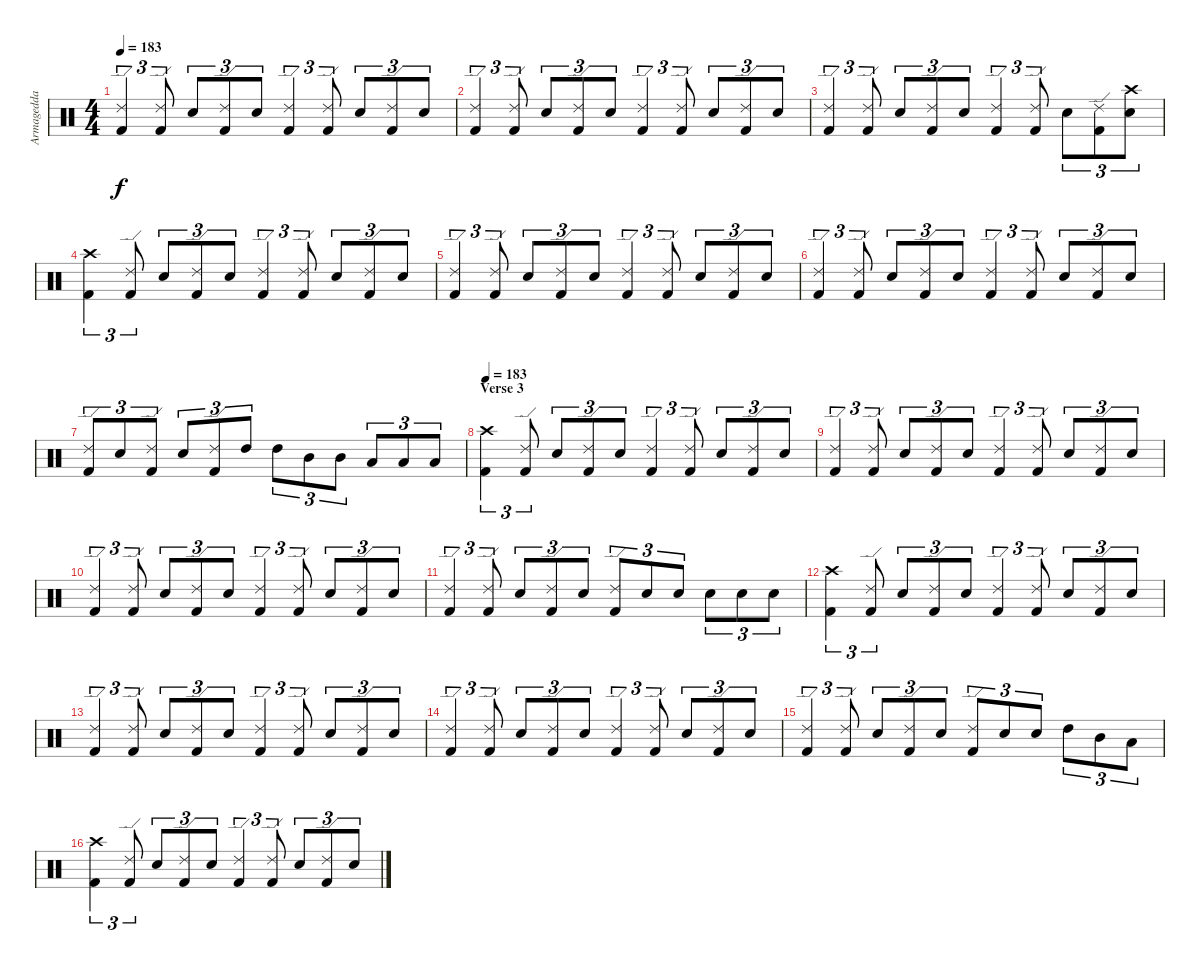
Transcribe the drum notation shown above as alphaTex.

\track ("Armagedda" "Armagedda") {instrument percussion}
\staff {score}
\articulation defaults
\ts (4 4)
\tempo 183
\clef neutral
\ks c
("Ride (edge) 2" "Kick (hit) 2").4{tu (3 2) dy f} ("Ride (edge) 2" "Kick (hit) 2").8{tu (3 2)} "Electric Snare (hit)".8{tu (3 2)} ("Ride (edge) 2" "Kick (hit) 2").8{tu (3 2)} "Electric Snare (hit)".8{tu (3 2)} ("Ride (edge) 2" "Kick (hit) 2").4{tu (3 2)} ("Ride (edge) 2" "Kick (hit) 2").8{tu (3 2)} "Electric Snare (hit)".8{tu (3 2)} ("Ride (edge) 2" "Kick (hit) 2").8{tu (3 2)} "Electric Snare (hit)".8{tu (3 2)} |
("Ride (edge) 2" "Kick (hit) 2").4{tu (3 2)} ("Ride (edge) 2" "Kick (hit) 2").8{tu (3 2)} "Electric Snare (hit)".8{tu (3 2)} ("Ride (edge) 2" "Kick (hit) 2").8{tu (3 2)} "Electric Snare (hit)".8{tu (3 2)} ("Ride (edge) 2" "Kick (hit) 2").4{tu (3 2)} ("Ride (edge) 2" "Kick (hit) 2").8{tu (3 2)} "Electric Snare (hit)".8{tu (3 2)} ("Ride (edge) 2" "Kick (hit) 2").8{tu (3 2)} "Electric Snare (hit)".8{tu (3 2)} |
("Ride (edge) 2" "Kick (hit) 2").4{tu (3 2)} ("Ride (edge) 2" "Kick (hit) 2").8{tu (3 2)} "Electric Snare (hit)".8{tu (3 2)} ("Ride (edge) 2" "Kick (hit) 2").8{tu (3 2)} "Electric Snare (hit)".8{tu (3 2)} ("Ride (edge) 2" "Kick (hit) 2").4{tu (3 2)} ("Ride (edge) 2" "Kick (hit) 2").8{tu (3 2)} "Electric Snare (hit)".8{tu (3 2)} ("Ride (edge) 2" "Kick (hit) 2").8{tu (3 2)} ("Crash high (hit)" "Electric Snare (hit)").8{tu (3 2)} |
("Crash high (hit)" "Kick (hit) 2").4{tu (3 2)} ("Ride (edge) 2" "Kick (hit) 2").8{tu (3 2)} "Electric Snare (hit)".8{tu (3 2)} ("Ride (edge) 2" "Kick (hit) 2").8{tu (3 2)} "Electric Snare (hit)".8{tu (3 2)} ("Ride (edge) 2" "Kick (hit) 2").4{tu (3 2)} ("Ride (edge) 2" "Kick (hit) 2").8{tu (3 2)} "Electric Snare (hit)".8{tu (3 2)} ("Ride (edge) 2" "Kick (hit) 2").8{tu (3 2)} "Electric Snare (hit)".8{tu (3 2)} |
("Ride (edge) 2" "Kick (hit) 2").4{tu (3 2)} ("Ride (edge) 2" "Kick (hit) 2").8{tu (3 2)} "Electric Snare (hit)".8{tu (3 2)} ("Ride (edge) 2" "Kick (hit) 2").8{tu (3 2)} "Electric Snare (hit)".8{tu (3 2)} ("Ride (edge) 2" "Kick (hit) 2").4{tu (3 2)} ("Ride (edge) 2" "Kick (hit) 2").8{tu (3 2)} "Electric Snare (hit)".8{tu (3 2)} ("Ride (edge) 2" "Kick (hit) 2").8{tu (3 2)} "Electric Snare (hit)".8{tu (3 2)} |
("Ride (edge) 2" "Kick (hit) 2").4{tu (3 2)} ("Ride (edge) 2" "Kick (hit) 2").8{tu (3 2)} "Electric Snare (hit)".8{tu (3 2)} ("Ride (edge) 2" "Kick (hit) 2").8{tu (3 2)} "Electric Snare (hit)".8{tu (3 2)} ("Ride (edge) 2" "Kick (hit) 2").4{tu (3 2)} ("Ride (edge) 2" "Kick (hit) 2").8{tu (3 2)} "Electric Snare (hit)".8{tu (3 2)} ("Ride (edge) 2" "Kick (hit) 2").8{tu (3 2)} "Electric Snare (hit)".8{tu (3 2)} |
("Ride (edge) 2" "Kick (hit) 2").8{tu (3 2)} "Electric Snare (hit)".8{tu (3 2)} ("Ride (edge) 2" "Kick (hit) 2").8{tu (3 2)} "Electric Snare (hit)".8{tu (3 2)} ("Ride (edge) 2" "Kick (hit) 2").8{tu (3 2)} "High Tom (hit)".8{tu (3 2)} "High Tom (hit)".8{tu (3 2)} "Mid Tom (hit)".8{tu (3 2)} "Mid Tom (hit)".8{tu (3 2)} "Low Tom (hit)".8{tu (3 2)} "Low Tom (hit)".8{tu (3 2)} "Low Floor Tom (hit)".8{tu (3 2)} |
\section ("" "Verse 3")
\tempo 183
("Crash high (hit)" "Kick (hit) 2").4{tu (3 2)} ("Ride (edge) 2" "Kick (hit) 2").8{tu (3 2)} "Electric Snare (hit)".8{tu (3 2)} ("Ride (edge) 2" "Kick (hit) 2").8{tu (3 2)} "Electric Snare (hit)".8{tu (3 2)} ("Ride (edge) 2" "Kick (hit) 2").4{tu (3 2)} ("Ride (edge) 2" "Kick (hit) 2").8{tu (3 2)} "Electric Snare (hit)".8{tu (3 2)} ("Ride (edge) 2" "Kick (hit) 2").8{tu (3 2)} "Electric Snare (hit)".8{tu (3 2)} |
("Ride (edge) 2" "Kick (hit) 2").4{tu (3 2)} ("Ride (edge) 2" "Kick (hit) 2").8{tu (3 2)} "Electric Snare (hit)".8{tu (3 2)} ("Ride (edge) 2" "Kick (hit) 2").8{tu (3 2)} "Electric Snare (hit)".8{tu (3 2)} ("Ride (edge) 2" "Kick (hit) 2").4{tu (3 2)} ("Ride (edge) 2" "Kick (hit) 2").8{tu (3 2)} "Electric Snare (hit)".8{tu (3 2)} ("Ride (edge) 2" "Kick (hit) 2").8{tu (3 2)} "Electric Snare (hit)".8{tu (3 2)} |
("Ride (edge) 2" "Kick (hit) 2").4{tu (3 2)} ("Ride (edge) 2" "Kick (hit) 2").8{tu (3 2)} "Electric Snare (hit)".8{tu (3 2)} ("Ride (edge) 2" "Kick (hit) 2").8{tu (3 2)} "Electric Snare (hit)".8{tu (3 2)} ("Ride (edge) 2" "Kick (hit) 2").4{tu (3 2)} ("Ride (edge) 2" "Kick (hit) 2").8{tu (3 2)} "Electric Snare (hit)".8{tu (3 2)} ("Ride (edge) 2" "Kick (hit) 2").8{tu (3 2)} "Electric Snare (hit)".8{tu (3 2)} |
("Ride (edge) 2" "Kick (hit) 2").4{tu (3 2)} ("Ride (edge) 2" "Kick (hit) 2").8{tu (3 2)} "Electric Snare (hit)".8{tu (3 2)} ("Ride (edge) 2" "Kick (hit) 2").8{tu (3 2)} "Electric Snare (hit)".8{tu (3 2)} ("Ride (edge) 2" "Kick (hit) 2").8{tu (3 2)} "Electric Snare (hit)".8{tu (3 2)} "Electric Snare (hit)".8{tu (3 2)} "Electric Snare (hit)".8{tu (3 2)} "Electric Snare (hit)".8{tu (3 2)} "Electric Snare (hit)".8{tu (3 2)} |
("Crash high (hit)" "Kick (hit) 2").4{tu (3 2)} ("Ride (edge) 2" "Kick (hit) 2").8{tu (3 2)} "Electric Snare (hit)".8{tu (3 2)} ("Ride (edge) 2" "Kick (hit) 2").8{tu (3 2)} "Electric Snare (hit)".8{tu (3 2)} ("Ride (edge) 2" "Kick (hit) 2").4{tu (3 2)} ("Ride (edge) 2" "Kick (hit) 2").8{tu (3 2)} "Electric Snare (hit)".8{tu (3 2)} ("Ride (edge) 2" "Kick (hit) 2").8{tu (3 2)} "Electric Snare (hit)".8{tu (3 2)} |
("Ride (edge) 2" "Kick (hit) 2").4{tu (3 2)} ("Ride (edge) 2" "Kick (hit) 2").8{tu (3 2)} "Electric Snare (hit)".8{tu (3 2)} ("Ride (edge) 2" "Kick (hit) 2").8{tu (3 2)} "Electric Snare (hit)".8{tu (3 2)} ("Ride (edge) 2" "Kick (hit) 2").4{tu (3 2)} ("Ride (edge) 2" "Kick (hit) 2").8{tu (3 2)} "Electric Snare (hit)".8{tu (3 2)} ("Ride (edge) 2" "Kick (hit) 2").8{tu (3 2)} "Electric Snare (hit)".8{tu (3 2)} |
("Ride (edge) 2" "Kick (hit) 2").4{tu (3 2)} ("Ride (edge) 2" "Kick (hit) 2").8{tu (3 2)} "Electric Snare (hit)".8{tu (3 2)} ("Ride (edge) 2" "Kick (hit) 2").8{tu (3 2)} "Electric Snare (hit)".8{tu (3 2)} ("Ride (edge) 2" "Kick (hit) 2").4{tu (3 2)} ("Ride (edge) 2" "Kick (hit) 2").8{tu (3 2)} "Electric Snare (hit)".8{tu (3 2)} ("Ride (edge) 2" "Kick (hit) 2").8{tu (3 2)} "Electric Snare (hit)".8{tu (3 2)} |
("Ride (edge) 2" "Kick (hit) 2").4{tu (3 2)} ("Ride (edge) 2" "Kick (hit) 2").8{tu (3 2)} "Electric Snare (hit)".8{tu (3 2)} ("Ride (edge) 2" "Kick (hit) 2").8{tu (3 2)} "Electric Snare (hit)".8{tu (3 2)} ("Ride (edge) 2" "Kick (hit) 2").8{tu (3 2)} "Electric Snare (hit)".8{tu (3 2)} "Electric Snare (hit)".8{tu (3 2)} "High Tom (hit)".8{tu (3 2)} "Mid Tom (hit)".8{tu (3 2)} "Low Tom (hit)".8{tu (3 2)} |
("Crash high (hit)" "Kick (hit) 2").4{tu (3 2)} ("Ride (edge) 2" "Kick (hit) 2").8{tu (3 2)} "Electric Snare (hit)".8{tu (3 2)} ("Ride (edge) 2" "Kick (hit) 2").8{tu (3 2)} "Electric Snare (hit)".8{tu (3 2)} ("Ride (edge) 2" "Kick (hit) 2").4{tu (3 2)} ("Ride (edge) 2" "Kick (hit) 2").8{tu (3 2)} "Electric Snare (hit)".8{tu (3 2)} ("Ride (edge) 2" "Kick (hit) 2").8{tu (3 2)} "Electric Snare (hit)".8{tu (3 2)}
